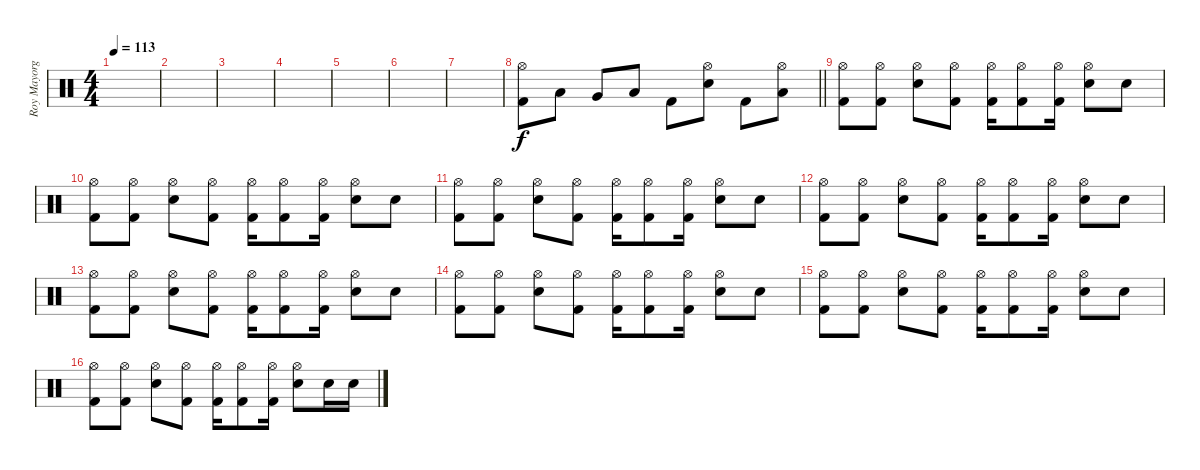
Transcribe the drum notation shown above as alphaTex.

\track ("Roy Mayorga" "Roy Mayorg") {instrument percussion}
\staff {score}
\articulation defaults
\ts (4 4)
\tempo 113
\clef neutral
\ks c
|
|
|
|
|
|
|
\barLineRight lightlight
("Hi-Hat (open)" "Kick (hit) 2").8 "Low Tom (hit)".8 "Very Low Tom (hit)".8 "Low Floor Tom (hit)".8 "Kick (hit) 2".8 ("Hi-Hat (open)" "Snare (hit) 2").8 "Kick (hit) 2".8 ("Hi-Hat (open)" "Low Tom (hit)").8 |
("Hi-Hat (open)" "Kick (hit) 2").8 ("Hi-Hat (open)" "Kick (hit) 2").8 ("Hi-Hat (open)" "Snare (hit) 2").8 ("Hi-Hat (open)" "Kick (hit) 2").8 ("Hi-Hat (open)" "Kick (hit) 2").16 ("Hi-Hat (open)" "Kick (hit) 2").8 ("Hi-Hat (open)" "Kick (hit) 2").16 ("Hi-Hat (open)" "Snare (hit) 2").8 "Snare (hit) 2".8 |
("Hi-Hat (open)" "Kick (hit) 2").8 ("Hi-Hat (open)" "Kick (hit) 2").8 ("Hi-Hat (open)" "Snare (hit) 2").8 ("Hi-Hat (open)" "Kick (hit) 2").8 ("Hi-Hat (open)" "Kick (hit) 2").16 ("Hi-Hat (open)" "Kick (hit) 2").8 ("Hi-Hat (open)" "Kick (hit) 2").16 ("Hi-Hat (open)" "Snare (hit) 2").8 "Snare (hit) 2".8 |
("Hi-Hat (open)" "Kick (hit) 2").8 ("Hi-Hat (open)" "Kick (hit) 2").8 ("Hi-Hat (open)" "Snare (hit) 2").8 ("Hi-Hat (open)" "Kick (hit) 2").8 ("Hi-Hat (open)" "Kick (hit) 2").16 ("Hi-Hat (open)" "Kick (hit) 2").8 ("Hi-Hat (open)" "Kick (hit) 2").16 ("Hi-Hat (open)" "Snare (hit) 2").8 "Snare (hit) 2".8 |
("Hi-Hat (open)" "Kick (hit) 2").8 ("Hi-Hat (open)" "Kick (hit) 2").8 ("Hi-Hat (open)" "Snare (hit) 2").8 ("Hi-Hat (open)" "Kick (hit) 2").8 ("Hi-Hat (open)" "Kick (hit) 2").16 ("Hi-Hat (open)" "Kick (hit) 2").8 ("Hi-Hat (open)" "Kick (hit) 2").16 ("Hi-Hat (open)" "Snare (hit) 2").8 "Snare (hit) 2".8 |
("Hi-Hat (open)" "Kick (hit) 2").8 ("Hi-Hat (open)" "Kick (hit) 2").8 ("Hi-Hat (open)" "Snare (hit) 2").8 ("Hi-Hat (open)" "Kick (hit) 2").8 ("Hi-Hat (open)" "Kick (hit) 2").16 ("Hi-Hat (open)" "Kick (hit) 2").8 ("Hi-Hat (open)" "Kick (hit) 2").16 ("Hi-Hat (open)" "Snare (hit) 2").8 "Snare (hit) 2".8 |
("Hi-Hat (open)" "Kick (hit) 2").8 ("Hi-Hat (open)" "Kick (hit) 2").8 ("Hi-Hat (open)" "Snare (hit) 2").8 ("Hi-Hat (open)" "Kick (hit) 2").8 ("Hi-Hat (open)" "Kick (hit) 2").16 ("Hi-Hat (open)" "Kick (hit) 2").8 ("Hi-Hat (open)" "Kick (hit) 2").16 ("Hi-Hat (open)" "Snare (hit) 2").8 "Snare (hit) 2".8 |
("Hi-Hat (open)" "Kick (hit) 2").8 ("Hi-Hat (open)" "Kick (hit) 2").8 ("Hi-Hat (open)" "Snare (hit) 2").8 ("Hi-Hat (open)" "Kick (hit) 2").8 ("Hi-Hat (open)" "Kick (hit) 2").16 ("Hi-Hat (open)" "Kick (hit) 2").8 ("Hi-Hat (open)" "Kick (hit) 2").16 ("Hi-Hat (open)" "Snare (hit) 2").8 "Snare (hit) 2".8 |
("Hi-Hat (open)" "Kick (hit) 2").8 ("Hi-Hat (open)" "Kick (hit) 2").8 ("Hi-Hat (open)" "Snare (hit) 2").8 ("Hi-Hat (open)" "Kick (hit) 2").8 ("Hi-Hat (open)" "Kick (hit) 2").16 ("Hi-Hat (open)" "Kick (hit) 2").8 ("Hi-Hat (open)" "Kick (hit) 2").16 ("Hi-Hat (open)" "Snare (hit) 2").8 "Snare (hit) 2".16 "Snare (hit) 2".16
